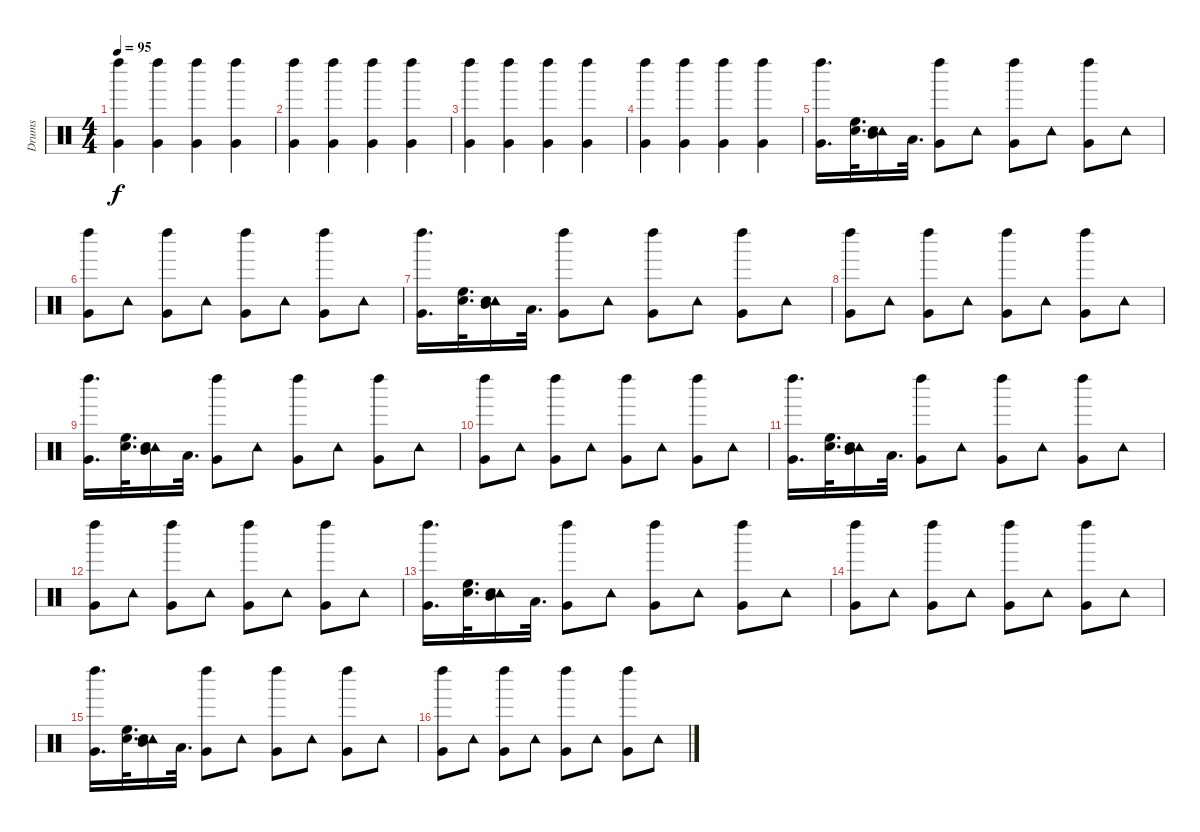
\track ("Drums" "Drums") {instrument percussion}
\staff {score}
\articulation defaults
\ts (4 4)
\tempo 95
\clef neutral
\ks c
("Very Low Tom (hit)" "Left Maraca (hit)").4{dy f} ("Very Low Tom (hit)" "Left Maraca (hit)").4 ("Very Low Tom (hit)" "Left Maraca (hit)").4 ("Very Low Tom (hit)" "Left Maraca (hit)").4 |
("Very Low Tom (hit)" "Left Maraca (hit)").4 ("Very Low Tom (hit)" "Left Maraca (hit)").4 ("Very Low Tom (hit)" "Left Maraca (hit)").4 ("Very Low Tom (hit)" "Left Maraca (hit)").4 |
("Very Low Tom (hit)" "Left Maraca (hit)").4 ("Very Low Tom (hit)" "Left Maraca (hit)").4 ("Very Low Tom (hit)" "Left Maraca (hit)").4 ("Very Low Tom (hit)" "Left Maraca (hit)").4 |
("Very Low Tom (hit)" "Left Maraca (hit)").4 ("Very Low Tom (hit)" "Left Maraca (hit)").4 ("Very Low Tom (hit)" "Left Maraca (hit)").4 ("Very Low Tom (hit)" "Left Maraca (hit)").4 |
("Very Low Tom (hit)" "Left Maraca (hit)").16{d} ("High Floor Tom (hit)" "Snare (hit) 2").32{d} ("Mid Tom (hit)" "Tambourine (hit)" "Snare (hit) 2").16 "Low Tom (hit)".32{d} ("Very Low Tom (hit)" "Left Maraca (hit)").8 "Tambourine (hit)".8 ("Very Low Tom (hit)" "Left Maraca (hit)").8 "Tambourine (hit)".8 ("Very Low Tom (hit)" "Left Maraca (hit)").8 "Tambourine (hit)".8 |
("Very Low Tom (hit)" "Left Maraca (hit)").8 "Tambourine (hit)".8 ("Very Low Tom (hit)" "Left Maraca (hit)").8 "Tambourine (hit)".8 ("Very Low Tom (hit)" "Left Maraca (hit)").8 "Tambourine (hit)".8 ("Very Low Tom (hit)" "Left Maraca (hit)").8 "Tambourine (hit)".8 |
("Very Low Tom (hit)" "Left Maraca (hit)").16{d} ("High Floor Tom (hit)" "Snare (hit) 2").32{d} ("Mid Tom (hit)" "Tambourine (hit)" "Snare (hit) 2").16 "Low Tom (hit)".32{d} ("Very Low Tom (hit)" "Left Maraca (hit)").8 "Tambourine (hit)".8 ("Very Low Tom (hit)" "Left Maraca (hit)").8 "Tambourine (hit)".8 ("Very Low Tom (hit)" "Left Maraca (hit)").8 "Tambourine (hit)".8 |
("Very Low Tom (hit)" "Left Maraca (hit)").8 "Tambourine (hit)".8 ("Very Low Tom (hit)" "Left Maraca (hit)").8 "Tambourine (hit)".8 ("Very Low Tom (hit)" "Left Maraca (hit)").8 "Tambourine (hit)".8 ("Very Low Tom (hit)" "Left Maraca (hit)").8 "Tambourine (hit)".8 |
("Very Low Tom (hit)" "Left Maraca (hit)").16{d} ("High Floor Tom (hit)" "Snare (hit) 2").32{d} ("Mid Tom (hit)" "Tambourine (hit)" "Snare (hit) 2").16 "Low Tom (hit)".32{d} ("Very Low Tom (hit)" "Left Maraca (hit)").8 "Tambourine (hit)".8 ("Very Low Tom (hit)" "Left Maraca (hit)").8 "Tambourine (hit)".8 ("Very Low Tom (hit)" "Left Maraca (hit)").8 "Tambourine (hit)".8 |
("Very Low Tom (hit)" "Left Maraca (hit)").8 "Tambourine (hit)".8 ("Very Low Tom (hit)" "Left Maraca (hit)").8 "Tambourine (hit)".8 ("Very Low Tom (hit)" "Left Maraca (hit)").8 "Tambourine (hit)".8 ("Very Low Tom (hit)" "Left Maraca (hit)").8 "Tambourine (hit)".8 |
("Very Low Tom (hit)" "Left Maraca (hit)").16{d} ("High Floor Tom (hit)" "Snare (hit) 2").32{d} ("Mid Tom (hit)" "Tambourine (hit)" "Snare (hit) 2").16 "Low Tom (hit)".32{d} ("Very Low Tom (hit)" "Left Maraca (hit)").8 "Tambourine (hit)".8 ("Very Low Tom (hit)" "Left Maraca (hit)").8 "Tambourine (hit)".8 ("Very Low Tom (hit)" "Left Maraca (hit)").8 "Tambourine (hit)".8 |
("Very Low Tom (hit)" "Left Maraca (hit)").8 "Tambourine (hit)".8 ("Very Low Tom (hit)" "Left Maraca (hit)").8 "Tambourine (hit)".8 ("Very Low Tom (hit)" "Left Maraca (hit)").8 "Tambourine (hit)".8 ("Very Low Tom (hit)" "Left Maraca (hit)").8 "Tambourine (hit)".8 |
("Very Low Tom (hit)" "Left Maraca (hit)").16{d} ("High Floor Tom (hit)" "Snare (hit) 2").32{d} ("Mid Tom (hit)" "Tambourine (hit)" "Snare (hit) 2").16 "Low Tom (hit)".32{d} ("Very Low Tom (hit)" "Left Maraca (hit)").8 "Tambourine (hit)".8 ("Very Low Tom (hit)" "Left Maraca (hit)").8 "Tambourine (hit)".8 ("Very Low Tom (hit)" "Left Maraca (hit)").8 "Tambourine (hit)".8 |
("Very Low Tom (hit)" "Left Maraca (hit)").8 "Tambourine (hit)".8 ("Very Low Tom (hit)" "Left Maraca (hit)").8 "Tambourine (hit)".8 ("Very Low Tom (hit)" "Left Maraca (hit)").8 "Tambourine (hit)".8 ("Very Low Tom (hit)" "Left Maraca (hit)").8 "Tambourine (hit)".8 |
("Very Low Tom (hit)" "Left Maraca (hit)").16{d} ("High Floor Tom (hit)" "Snare (hit) 2").32{d} ("Mid Tom (hit)" "Tambourine (hit)" "Snare (hit) 2").16 "Low Tom (hit)".32{d} ("Very Low Tom (hit)" "Left Maraca (hit)").8 "Tambourine (hit)".8 ("Very Low Tom (hit)" "Left Maraca (hit)").8 "Tambourine (hit)".8 ("Very Low Tom (hit)" "Left Maraca (hit)").8 "Tambourine (hit)".8 |
("Very Low Tom (hit)" "Left Maraca (hit)").8 "Tambourine (hit)".8 ("Very Low Tom (hit)" "Left Maraca (hit)").8 "Tambourine (hit)".8 ("Very Low Tom (hit)" "Left Maraca (hit)").8 "Tambourine (hit)".8 ("Very Low Tom (hit)" "Left Maraca (hit)").8 "Tambourine (hit)".8
